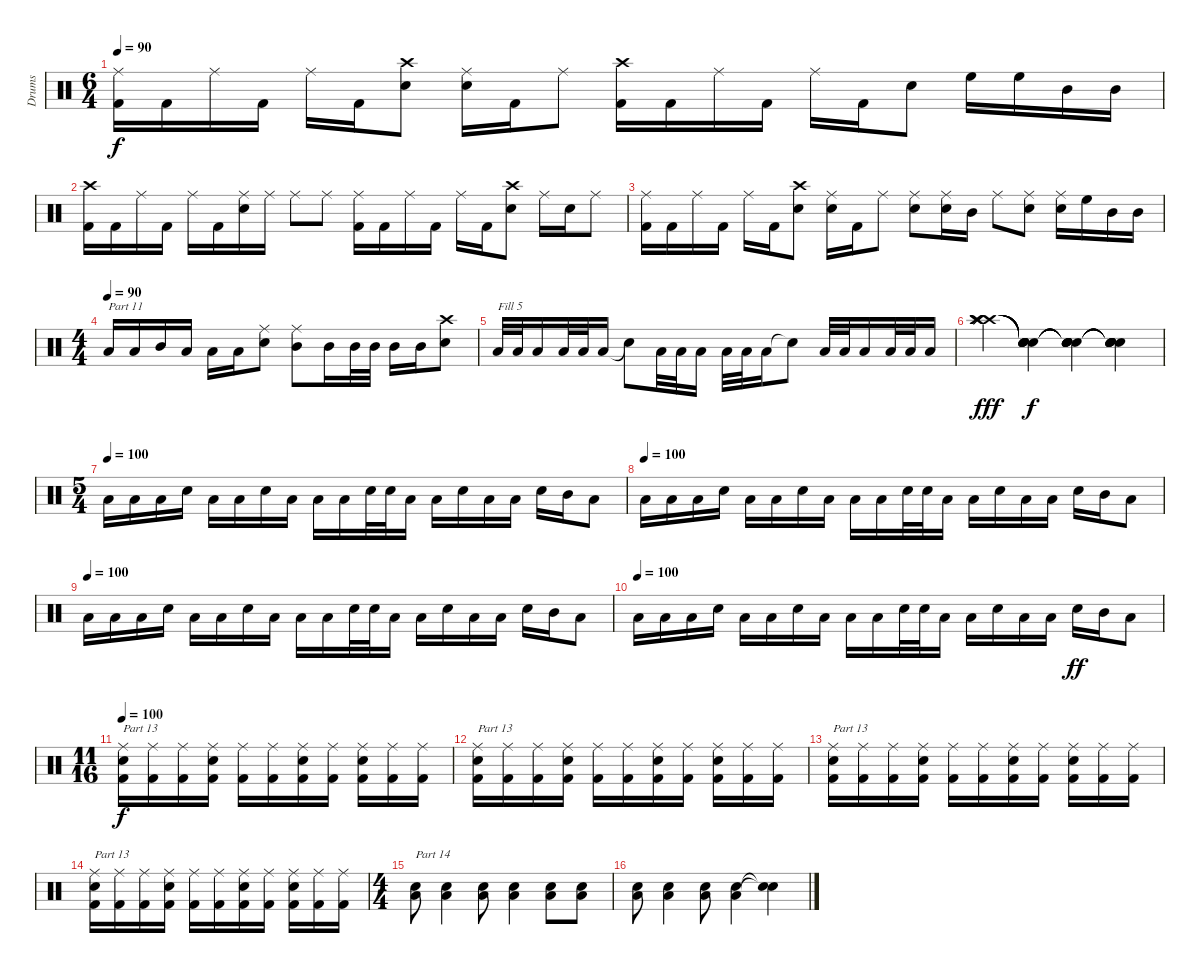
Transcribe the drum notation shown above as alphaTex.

\track ("Drums" "Drums") {instrument percussion}
\staff {score}
\articulation defaults
\ts (6 4)
\tempo 90
\clef neutral
\ks c
("Ride (middle)" "Kick (hit) 2").16{dy f} "Kick (hit) 2".16 "Ride (middle)".16 "Kick (hit) 2".16 "Ride (middle)".16 "Kick (hit) 2".16 ("Crash high (hit)" "Snare (hit) 2").8 ("Ride (middle)" "Snare (hit) 2").16 "Kick (hit) 2".16 "Ride (middle)".8 ("Crash high (hit)" "Kick (hit) 2").16 "Kick (hit) 2".16 "Ride (middle)".16 "Kick (hit) 2".16 "Ride (middle)".16 "Kick (hit) 2".16 "Snare (hit) 2".8 "High Floor Tom (hit)".16 "High Floor Tom (hit)".16 "Mid Tom (hit)".16 "Mid Tom (hit)".16 |
("Crash high (hit)" "Kick (hit) 2").16 "Kick (hit) 2".16 "Ride (middle)".16 "Kick (hit) 2".16 "Ride (middle)".16 "Kick (hit) 2".16 ("Ride (middle)" "Snare (hit) 2").16 "Ride (middle)".16 "Ride (middle)".8 "Ride (middle)".8 ("Ride (middle)" "Kick (hit) 2").16 "Kick (hit) 2".16 "Ride (middle)".16 "Kick (hit) 2".16 "Ride (middle)".16 "Kick (hit) 2".16 ("Crash high (hit)" "Snare (hit) 2").8 "Ride (middle)".16 "Snare (hit) 2".16 "Ride (middle)".8 |
("Ride (middle)" "Kick (hit) 2").16 "Kick (hit) 2".16 "Ride (middle)".16 "Kick (hit) 2".16 "Ride (middle)".16 "Kick (hit) 2".16 ("Crash high (hit)" "Snare (hit) 2").8 ("Ride (middle)" "Snare (hit) 2").16 "Kick (hit) 2".16 "Ride (middle)".8 ("Ride (middle)" "Snare (hit) 2").8 ("Ride (middle)" "Snare (hit) 2").16 "Mid Tom (hit)".16 "Ride (middle)".8 ("Ride (middle)" "Snare (hit) 2").8 ("Ride (middle)" "Snare (hit) 2").16 "High Floor Tom (hit)".16 "Mid Tom (hit)".16 "Mid Tom (hit)".16 |
\ts (4 4)
\tempo (90)
"Low Floor Tom (hit)".16{txt "Part 11"} "Low Floor Tom (hit)".16 "Mid Tom (hit)".16 "Low Floor Tom (hit)".16 "Low Floor Tom (hit)".16 "Low Floor Tom (hit)".16 ("Ride (middle)" "Snare (hit) 2").8 ("Ride (middle)" "Mid Tom (hit)").8 "Mid Tom (hit)".16 "Mid Tom (hit)".32 "Mid Tom (hit)".32 "Mid Tom (hit)".16 "Mid Tom (hit)".16 ("Crash high (hit)" "Snare (hit) 2").8 |
"Low Floor Tom (hit)".32{txt "Fill 5"} "Low Floor Tom (hit)".32 "Low Floor Tom (hit)".16 "Low Floor Tom (hit)".32 "Low Floor Tom (hit)".32 "Low Floor Tom (hit)".16 "Snare (hit)"{t}.8 "Low Floor Tom (hit)".32 "Low Floor Tom (hit)".32 "Low Floor Tom (hit)".16 "Low Floor Tom (hit)".32 "Low Floor Tom (hit)".32 "Low Floor Tom (hit)".16 "Snare (hit)"{t}.8 "Low Floor Tom (hit)".32 "Low Floor Tom (hit)".32 "Low Floor Tom (hit)".16 "Low Floor Tom (hit)".32 "Low Floor Tom (hit)".32 "Low Floor Tom (hit)".16 |
("Crash high (hit)" "Crash high (hit)" "Crash high (hit)" "Splash (hit)" "Splash (hit)" "Splash (hit)").4{dy fff} ("Snare (hit)"{t} "Snare (hit)"{t} "Snare (hit)"{t} "Snare (hit)"{t} "Snare (hit)"{t} "Snare (hit)"{t}).4{dy f} ("Snare (hit)"{t} "Snare (hit)"{t} "Snare (hit)"{t} "Snare (hit)"{t} "Snare (hit)"{t} "Snare (hit)"{t}).4 ("Snare (hit)"{t} "Snare (hit)"{t} "Snare (hit)"{t} "Snare (hit)"{t} "Snare (hit)"{t} "Snare (hit)"{t}).4 |
\ts (5 4)
\tempo (100)
"Low Floor Tom (hit)".16 "Low Floor Tom (hit)".16 "Low Floor Tom (hit)".16 "Snare (hit) 2".16 "Low Floor Tom (hit)".16 "Low Floor Tom (hit)".16 "Snare (hit) 2".16 "Low Floor Tom (hit)".16 "Low Floor Tom (hit)".16 "Low Floor Tom (hit)".16 "Snare (hit) 2".32 "Snare (hit) 2".32 "Low Floor Tom (hit)".16 "Low Floor Tom (hit)".16 "Snare (hit) 2".16 "Low Floor Tom (hit)".16 "Low Floor Tom (hit)".16 "Snare (hit) 2".16 "Mid Tom (hit)".16 "Low Floor Tom (hit)".8 |
\tempo (100)
"Low Floor Tom (hit)".16 "Low Floor Tom (hit)".16 "Low Floor Tom (hit)".16 "Snare (hit) 2".16 "Low Floor Tom (hit)".16 "Low Floor Tom (hit)".16 "Snare (hit) 2".16 "Low Floor Tom (hit)".16 "Low Floor Tom (hit)".16 "Low Floor Tom (hit)".16 "Snare (hit) 2".32 "Snare (hit) 2".32 "Low Floor Tom (hit)".16 "Low Floor Tom (hit)".16 "Snare (hit) 2".16 "Low Floor Tom (hit)".16 "Low Floor Tom (hit)".16 "Snare (hit) 2".16 "Mid Tom (hit)".16 "Low Floor Tom (hit)".8 |
\tempo (100)
"Low Floor Tom (hit)".16 "Low Floor Tom (hit)".16 "Low Floor Tom (hit)".16 "Snare (hit) 2".16 "Low Floor Tom (hit)".16 "Low Floor Tom (hit)".16 "Snare (hit) 2".16 "Low Floor Tom (hit)".16 "Low Floor Tom (hit)".16 "Low Floor Tom (hit)".16 "Snare (hit) 2".32 "Snare (hit) 2".32 "Low Floor Tom (hit)".16 "Low Floor Tom (hit)".16 "Snare (hit) 2".16 "Low Floor Tom (hit)".16 "Low Floor Tom (hit)".16 "Snare (hit) 2".16 "Mid Tom (hit)".16 "Low Floor Tom (hit)".8 |
\tempo (100)
"Low Floor Tom (hit)".16 "Low Floor Tom (hit)".16 "Low Floor Tom (hit)".16 "Snare (hit) 2".16 "Low Floor Tom (hit)".16 "Low Floor Tom (hit)".16 "Snare (hit) 2".16 "Low Floor Tom (hit)".16 "Low Floor Tom (hit)".16 "Low Floor Tom (hit)".16 "Snare (hit) 2".32 "Snare (hit) 2".32 "Low Floor Tom (hit)".16 "Low Floor Tom (hit)".16 "Snare (hit) 2".16 "Low Floor Tom (hit)".16 "Low Floor Tom (hit)".16 "Snare (hit) 2".16{dy ff} "Mid Tom (hit)".16 "Low Floor Tom (hit)".8 |
\ts (11 16)
\tempo 100
("Ride (middle)" "Snare (hit) 2" "Kick (hit) 2").16{txt "Part 13" dy f} ("Ride (middle)" "Kick (hit) 2").16 ("Ride (middle)" "Kick (hit) 2").16 ("Ride (middle)" "Snare (hit) 2" "Kick (hit) 2").16 ("Ride (middle)" "Kick (hit) 2").16 ("Ride (middle)" "Kick (hit) 2").16 ("Ride (middle)" "Snare (hit) 2" "Kick (hit) 2").16 ("Ride (middle)" "Kick (hit) 2").16 ("Ride (middle)" "Snare (hit) 2" "Kick (hit) 2").16 ("Ride (middle)" "Kick (hit) 2").16 ("Ride (middle)" "Kick (hit) 2").16 |
("Ride (middle)" "Snare (hit) 2" "Kick (hit) 2").16{txt "Part 13"} ("Ride (middle)" "Kick (hit) 2").16 ("Ride (middle)" "Kick (hit) 2").16 ("Ride (middle)" "Snare (hit) 2" "Kick (hit) 2").16 ("Ride (middle)" "Kick (hit) 2").16 ("Ride (middle)" "Kick (hit) 2").16 ("Ride (middle)" "Snare (hit) 2" "Kick (hit) 2").16 ("Ride (middle)" "Kick (hit) 2").16 ("Ride (middle)" "Snare (hit) 2" "Kick (hit) 2").16 ("Ride (middle)" "Kick (hit) 2").16 ("Ride (middle)" "Kick (hit) 2").16 |
("Ride (middle)" "Snare (hit) 2" "Kick (hit) 2").16{txt "Part 13"} ("Ride (middle)" "Kick (hit) 2").16 ("Ride (middle)" "Kick (hit) 2").16 ("Ride (middle)" "Snare (hit) 2" "Kick (hit) 2").16 ("Ride (middle)" "Kick (hit) 2").16 ("Ride (middle)" "Kick (hit) 2").16 ("Ride (middle)" "Snare (hit) 2" "Kick (hit) 2").16 ("Ride (middle)" "Kick (hit) 2").16 ("Ride (middle)" "Snare (hit) 2" "Kick (hit) 2").16 ("Ride (middle)" "Kick (hit) 2").16 ("Ride (middle)" "Kick (hit) 2").16 |
("Ride (middle)" "Snare (hit) 2" "Kick (hit) 2").16{txt "Part 13"} ("Ride (middle)" "Kick (hit) 2").16 ("Ride (middle)" "Kick (hit) 2").16 ("Ride (middle)" "Snare (hit) 2" "Kick (hit) 2").16 ("Ride (middle)" "Kick (hit) 2").16 ("Ride (middle)" "Kick (hit) 2").16 ("Ride (middle)" "Snare (hit) 2" "Kick (hit) 2").16 ("Ride (middle)" "Kick (hit) 2").16 ("Ride (middle)" "Snare (hit) 2" "Kick (hit) 2").16 ("Ride (middle)" "Kick (hit) 2").16 ("Ride (middle)" "Kick (hit) 2").16 |
\ts (4 4)
("Low Floor Tom (hit)" "Snare (hit) 2").8{txt "Part 14"} ("Low Floor Tom (hit)" "Snare (hit) 2").4 ("Low Floor Tom (hit)" "Snare (hit) 2").8 ("Low Floor Tom (hit)" "Snare (hit) 2").4 ("Low Floor Tom (hit)" "Snare (hit) 2").8 ("Low Floor Tom (hit)" "Snare (hit) 2").8 |
("Low Floor Tom (hit)" "Snare (hit) 2").8 ("Low Floor Tom (hit)" "Snare (hit) 2").4 ("Low Floor Tom (hit)" "Snare (hit) 2").8 ("Low Floor Tom (hit)" "Snare (hit) 2").4 ("Snare (hit)"{t} "Snare (hit)"{t}).4
